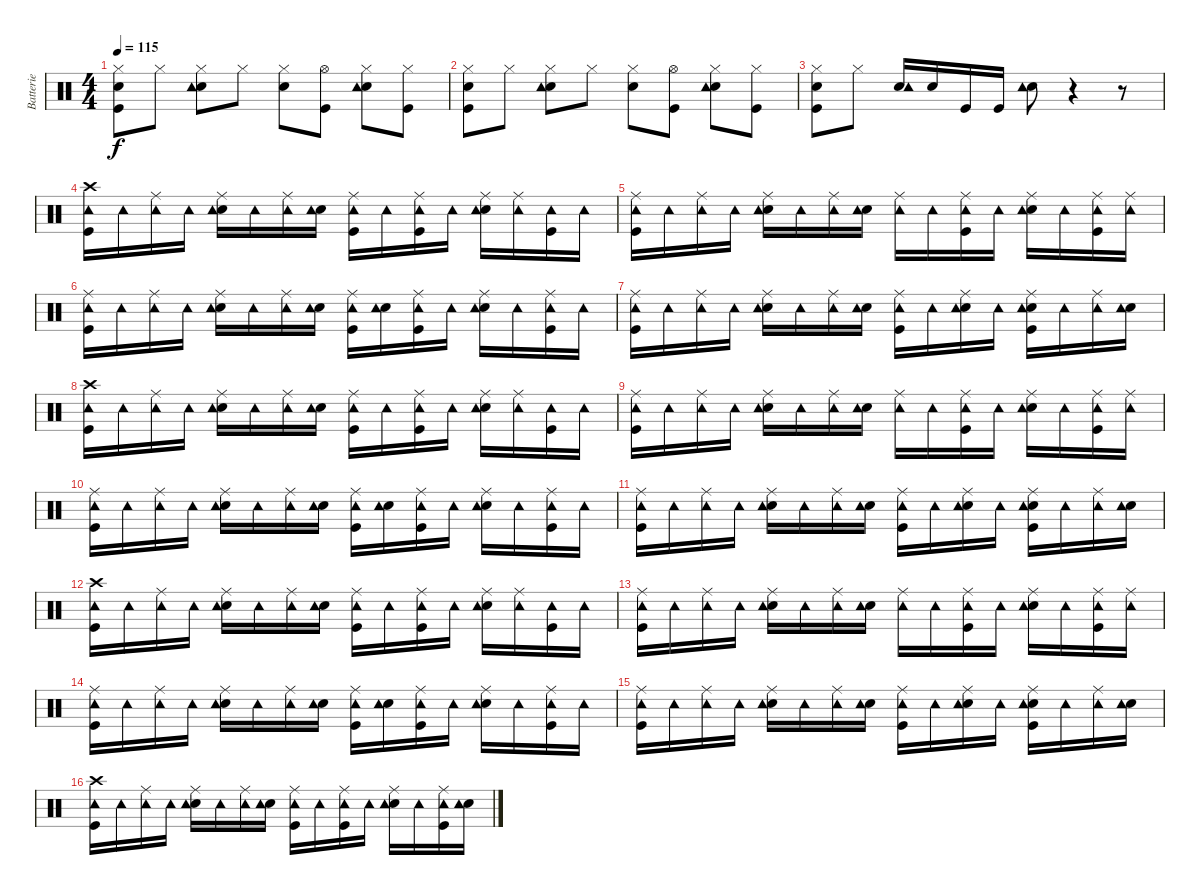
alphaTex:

\track ("Batterie" "Batterie") {instrument percussion}
\staff {score}
\articulation defaults
\ts (4 4)
\tempo 115
\clef neutral
\ks c
("Hi-Hat (closed)" "Kick (hit)" "Electric Snare (hit)").8{dy f} "Hi-Hat (closed)".8 ("Hi-Hat (closed)" "Electric Snare (hit)" "Tambourine (hit)").8 "Hi-Hat (closed)".8 ("Hi-Hat (closed)" "Electric Snare (hit)").8 ("Kick (hit)" "Hi-Hat (open)").8 ("Electric Snare (hit)" "Hi-Hat (closed)" "Tambourine (hit)").8 ("Kick (hit)" "Hi-Hat (closed)").8 |
("Kick (hit)" "Hi-Hat (closed)" "Electric Snare (hit)").8 "Hi-Hat (closed)".8 ("Hi-Hat (closed)" "Electric Snare (hit)" "Tambourine (hit)").8 "Hi-Hat (closed)".8 ("Electric Snare (hit)" "Hi-Hat (closed)").8 ("Kick (hit)" "Hi-Hat (open)").8 ("Electric Snare (hit)" "Hi-Hat (closed)" "Tambourine (hit)").8 ("Hi-Hat (closed)" "Kick (hit)").8 |
("Hi-Hat (closed)" "Electric Snare (hit)" "Kick (hit)").8 "Hi-Hat (closed)".8 ("Electric Snare (hit)" "Tambourine (hit)").16 "Electric Snare (hit)".16 "Kick (hit)".16 "Kick (hit)".16 ("Electric Snare (hit)" "Tambourine (hit)").8 r.4 r.8 |
("Kick (hit)" "Crash high (hit)" "Tambourine (hit)").16 "Tambourine (hit)".16 ("Ride (middle)" "Tambourine (hit)").16 "Tambourine (hit)".16 ("Ride (middle)" "Electric Snare (hit)" "Tambourine (hit)").16 "Tambourine (hit)".16 ("Ride (middle)" "Tambourine (hit)").16 ("Electric Snare (hit)" "Tambourine (hit)").16 ("Kick (hit)" "Ride (middle)" "Tambourine (hit)").16 "Tambourine (hit)".16 ("Kick (hit)" "Ride (middle)" "Tambourine (hit)").16 "Tambourine (hit)".16 ("Electric Snare (hit)" "Ride (middle)" "Tambourine (hit)").16 ("Ride (middle)" "Tambourine (hit)").16 ("Kick (hit)" "Tambourine (hit)").16 "Tambourine (hit)".16 |
("Ride (middle)" "Kick (hit)" "Tambourine (hit)").16 "Tambourine (hit)".16 ("Ride (middle)" "Tambourine (hit)").16 "Tambourine (hit)".16 ("Electric Snare (hit)" "Ride (middle)" "Tambourine (hit)").16 "Tambourine (hit)".16 ("Ride (middle)" "Tambourine (hit)").16 ("Electric Snare (hit)" "Tambourine (hit)").16 ("Ride (middle)" "Tambourine (hit)").16 "Tambourine (hit)".16 ("Ride (middle)" "Kick (hit)" "Tambourine (hit)").16 "Tambourine (hit)".16 ("Electric Snare (hit)" "Ride (middle)" "Tambourine (hit)").16 "Tambourine (hit)".16 ("Ride (middle)" "Kick (hit)" "Tambourine (hit)").16 ("Ride (middle)" "Tambourine (hit)").16 |
("Ride (middle)" "Kick (hit)" "Tambourine (hit)").16 "Tambourine (hit)".16 ("Ride (middle)" "Tambourine (hit)").16 "Tambourine (hit)".16 ("Ride (middle)" "Electric Snare (hit)" "Tambourine (hit)").16 "Tambourine (hit)".16 ("Ride (middle)" "Tambourine (hit)").16 ("Electric Snare (hit)" "Tambourine (hit)").16 ("Ride (middle)" "Kick (hit)" "Tambourine (hit)").16 ("Electric Snare (hit)" "Tambourine (hit)").16 ("Ride (middle)" "Kick (hit)" "Tambourine (hit)").16 "Tambourine (hit)".16 ("Electric Snare (hit)" "Ride (middle)" "Tambourine (hit)").16 "Tambourine (hit)".16 ("Ride (middle)" "Kick (hit)" "Tambourine (hit)").16 "Tambourine (hit)".16 |
("Ride (middle)" "Kick (hit)" "Tambourine (hit)").16 "Tambourine (hit)".16 ("Ride (middle)" "Tambourine (hit)").16 "Tambourine (hit)".16 ("Ride (middle)" "Electric Snare (hit)" "Tambourine (hit)").16 "Tambourine (hit)".16 ("Ride (middle)" "Tambourine (hit)").16 ("Electric Snare (hit)" "Tambourine (hit)").16 ("Ride (middle)" "Kick (hit)" "Tambourine (hit)").16 "Tambourine (hit)".16 ("Ride (middle)" "Electric Snare (hit)" "Tambourine (hit)").16 "Tambourine (hit)".16 ("Electric Snare (hit)" "Kick (hit)" "Ride (middle)" "Tambourine (hit)").16 "Tambourine (hit)".16 ("Ride (middle)" "Tambourine (hit)").16 ("Electric Snare (hit)" "Tambourine (hit)").16 |
("Kick (hit)" "Crash high (hit)" "Tambourine (hit)").16 "Tambourine (hit)".16 ("Ride (middle)" "Tambourine (hit)").16 "Tambourine (hit)".16 ("Ride (middle)" "Electric Snare (hit)" "Tambourine (hit)").16 "Tambourine (hit)".16 ("Ride (middle)" "Tambourine (hit)").16 ("Electric Snare (hit)" "Tambourine (hit)").16 ("Kick (hit)" "Ride (middle)" "Tambourine (hit)").16 "Tambourine (hit)".16 ("Kick (hit)" "Ride (middle)" "Tambourine (hit)").16 "Tambourine (hit)".16 ("Electric Snare (hit)" "Ride (middle)" "Tambourine (hit)").16 ("Ride (middle)" "Tambourine (hit)").16 ("Kick (hit)" "Tambourine (hit)").16 "Tambourine (hit)".16 |
("Ride (middle)" "Kick (hit)" "Tambourine (hit)").16 "Tambourine (hit)".16 ("Ride (middle)" "Tambourine (hit)").16 "Tambourine (hit)".16 ("Electric Snare (hit)" "Ride (middle)" "Tambourine (hit)").16 "Tambourine (hit)".16 ("Ride (middle)" "Tambourine (hit)").16 ("Electric Snare (hit)" "Tambourine (hit)").16 ("Ride (middle)" "Tambourine (hit)").16 "Tambourine (hit)".16 ("Ride (middle)" "Kick (hit)" "Tambourine (hit)").16 "Tambourine (hit)".16 ("Electric Snare (hit)" "Ride (middle)" "Tambourine (hit)").16 "Tambourine (hit)".16 ("Ride (middle)" "Kick (hit)" "Tambourine (hit)").16 ("Ride (middle)" "Tambourine (hit)").16 |
("Ride (middle)" "Kick (hit)" "Tambourine (hit)").16 "Tambourine (hit)".16 ("Ride (middle)" "Tambourine (hit)").16 "Tambourine (hit)".16 ("Ride (middle)" "Electric Snare (hit)" "Tambourine (hit)").16 "Tambourine (hit)".16 ("Ride (middle)" "Tambourine (hit)").16 ("Electric Snare (hit)" "Tambourine (hit)").16 ("Ride (middle)" "Kick (hit)" "Tambourine (hit)").16 ("Electric Snare (hit)" "Tambourine (hit)").16 ("Ride (middle)" "Kick (hit)" "Tambourine (hit)").16 "Tambourine (hit)".16 ("Electric Snare (hit)" "Ride (middle)" "Tambourine (hit)").16 "Tambourine (hit)".16 ("Ride (middle)" "Kick (hit)" "Tambourine (hit)").16 "Tambourine (hit)".16 |
("Ride (middle)" "Kick (hit)" "Tambourine (hit)").16 "Tambourine (hit)".16 ("Ride (middle)" "Tambourine (hit)").16 "Tambourine (hit)".16 ("Ride (middle)" "Electric Snare (hit)" "Tambourine (hit)").16 "Tambourine (hit)".16 ("Ride (middle)" "Tambourine (hit)").16 ("Electric Snare (hit)" "Tambourine (hit)").16 ("Ride (middle)" "Kick (hit)" "Tambourine (hit)").16 "Tambourine (hit)".16 ("Ride (middle)" "Electric Snare (hit)" "Tambourine (hit)").16 "Tambourine (hit)".16 ("Electric Snare (hit)" "Kick (hit)" "Ride (middle)" "Tambourine (hit)").16 "Tambourine (hit)".16 ("Ride (middle)" "Tambourine (hit)").16 ("Electric Snare (hit)" "Tambourine (hit)").16 |
("Kick (hit)" "Crash high (hit)" "Tambourine (hit)").16 "Tambourine (hit)".16 ("Ride (middle)" "Tambourine (hit)").16 "Tambourine (hit)".16 ("Ride (middle)" "Electric Snare (hit)" "Tambourine (hit)").16 "Tambourine (hit)".16 ("Ride (middle)" "Tambourine (hit)").16 ("Electric Snare (hit)" "Tambourine (hit)").16 ("Kick (hit)" "Ride (middle)" "Tambourine (hit)").16 "Tambourine (hit)".16 ("Kick (hit)" "Ride (middle)" "Tambourine (hit)").16 "Tambourine (hit)".16 ("Electric Snare (hit)" "Ride (middle)" "Tambourine (hit)").16 ("Ride (middle)" "Tambourine (hit)").16 ("Kick (hit)" "Tambourine (hit)").16 "Tambourine (hit)".16 |
("Ride (middle)" "Kick (hit)" "Tambourine (hit)").16 "Tambourine (hit)".16 ("Ride (middle)" "Tambourine (hit)").16 "Tambourine (hit)".16 ("Electric Snare (hit)" "Ride (middle)" "Tambourine (hit)").16 "Tambourine (hit)".16 ("Ride (middle)" "Tambourine (hit)").16 ("Electric Snare (hit)" "Tambourine (hit)").16 ("Ride (middle)" "Tambourine (hit)").16 "Tambourine (hit)".16 ("Ride (middle)" "Kick (hit)" "Tambourine (hit)").16 "Tambourine (hit)".16 ("Electric Snare (hit)" "Ride (middle)" "Tambourine (hit)").16 "Tambourine (hit)".16 ("Ride (middle)" "Kick (hit)" "Tambourine (hit)").16 ("Ride (middle)" "Tambourine (hit)").16 |
("Ride (middle)" "Kick (hit)" "Tambourine (hit)").16 "Tambourine (hit)".16 ("Ride (middle)" "Tambourine (hit)").16 "Tambourine (hit)".16 ("Ride (middle)" "Electric Snare (hit)" "Tambourine (hit)").16 "Tambourine (hit)".16 ("Ride (middle)" "Tambourine (hit)").16 ("Electric Snare (hit)" "Tambourine (hit)").16 ("Ride (middle)" "Kick (hit)" "Tambourine (hit)").16 ("Electric Snare (hit)" "Tambourine (hit)").16 ("Ride (middle)" "Kick (hit)" "Tambourine (hit)").16 "Tambourine (hit)".16 ("Electric Snare (hit)" "Ride (middle)" "Tambourine (hit)").16 "Tambourine (hit)".16 ("Ride (middle)" "Kick (hit)" "Tambourine (hit)").16 "Tambourine (hit)".16 |
("Ride (middle)" "Kick (hit)" "Tambourine (hit)").16 "Tambourine (hit)".16 ("Ride (middle)" "Tambourine (hit)").16 "Tambourine (hit)".16 ("Ride (middle)" "Electric Snare (hit)" "Tambourine (hit)").16 "Tambourine (hit)".16 ("Ride (middle)" "Tambourine (hit)").16 ("Electric Snare (hit)" "Tambourine (hit)").16 ("Ride (middle)" "Kick (hit)" "Tambourine (hit)").16 "Tambourine (hit)".16 ("Ride (middle)" "Electric Snare (hit)" "Tambourine (hit)").16 "Tambourine (hit)".16 ("Electric Snare (hit)" "Kick (hit)" "Ride (middle)" "Tambourine (hit)").16 "Tambourine (hit)".16 ("Ride (middle)" "Tambourine (hit)").16 ("Electric Snare (hit)" "Tambourine (hit)").16 |
("Crash high (hit)" "Kick (hit)" "Tambourine (hit)").16 "Tambourine (hit)".16 ("Ride (middle)" "Tambourine (hit)").16 "Tambourine (hit)".16 ("Ride (middle)" "Electric Snare (hit)" "Tambourine (hit)").16 "Tambourine (hit)".16 ("Ride (middle)" "Tambourine (hit)").16 ("Electric Snare (hit)" "Tambourine (hit)").16 ("Kick (hit)" "Ride (middle)" "Tambourine (hit)").16 "Tambourine (hit)".16 ("Kick (hit)" "Ride (middle)" "Tambourine (hit)").16 "Tambourine (hit)".16 ("Electric Snare (hit)" "Ride (middle)" "Tambourine (hit)").16 "Tambourine (hit)".16 ("Ride (middle)" "Kick (hit)" "Tambourine (hit)").16 ("Electric Snare (hit)" "Tambourine (hit)").16
